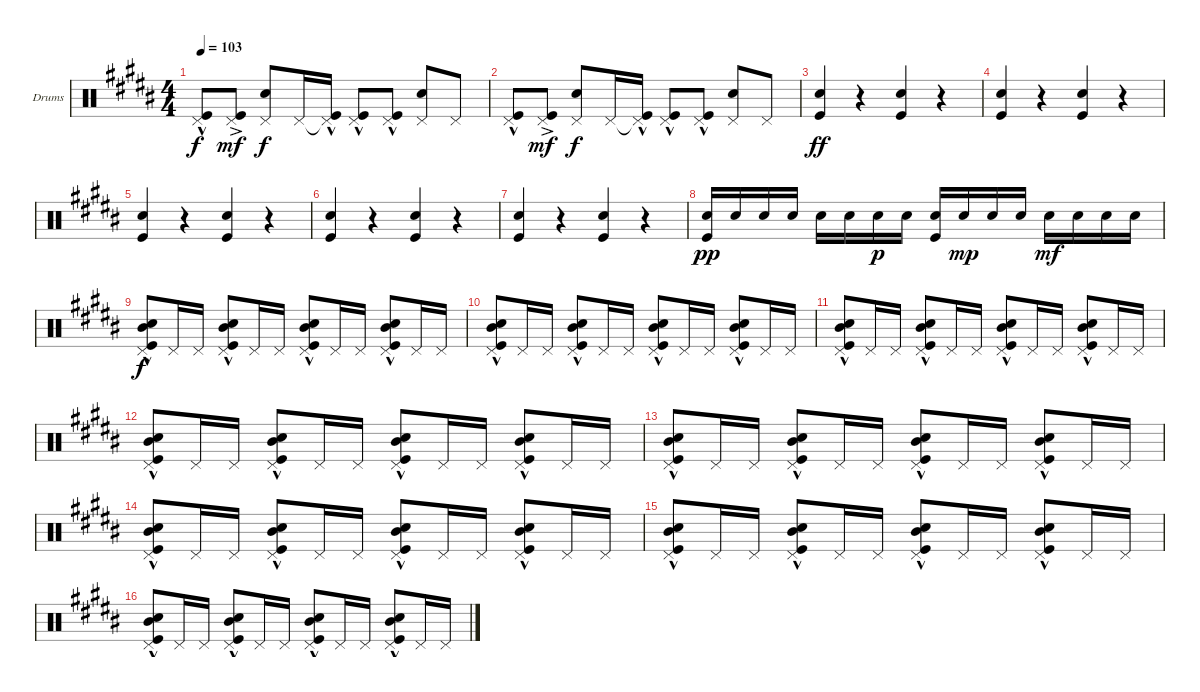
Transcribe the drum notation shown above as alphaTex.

\defaultSystemsLayout 4
\bracketExtendMode groupsimilarinstruments
\firstSystemTrackNameOrientation horizontal
\otherSystemsTrackNameOrientation horizontal
\track ("Drumkit" "Drums") {instrument percussion}
\staff {score}
\articulation defaults
\ts (4 4)
\tempo 103
\clef neutral
\ks b
("Pedal Hi-Hat (hit)" "Kick (hit)"{hac}).8{dy f} ("Kick (hit)"{ac} "Pedal Hi-Hat (hit)").8{dy mf} ("Pedal Hi-Hat (hit)" "Snare (hit) 2").8{dy f} "Pedal Hi-Hat (hit)".16 ("Pedal Hi-Hat (hit)"{t} "Kick (hit)"{hac}).16 ("Kick (hit)"{hac} "Pedal Hi-Hat (hit)").8 ("Pedal Hi-Hat (hit)" "Kick (hit)"{hac}).8 ("Pedal Hi-Hat (hit)" "Snare (hit) 2").8 "Pedal Hi-Hat (hit)".8 |
("Pedal Hi-Hat (hit)" "Kick (hit)"{hac}).8 ("Kick (hit)"{ac} "Pedal Hi-Hat (hit)").8{dy mf} ("Pedal Hi-Hat (hit)" "Snare (hit) 2").8{dy f} "Pedal Hi-Hat (hit)".16 ("Pedal Hi-Hat (hit)"{t} "Kick (hit)"{hac}).16 ("Kick (hit)"{hac} "Pedal Hi-Hat (hit)").8 ("Pedal Hi-Hat (hit)" "Kick (hit)"{hac}).8 ("Pedal Hi-Hat (hit)" "Snare (hit) 2").8 "Pedal Hi-Hat (hit)".8 |
("Snare (hit) 2" "Kick (hit)").4{dy ff} r.4 ("Kick (hit)" "Snare (hit) 2").4 r.4 |
("Snare (hit) 2" "Kick (hit)").4 r.4 ("Kick (hit)" "Snare (hit) 2").4 r.4 |
("Snare (hit) 2" "Kick (hit)").4 r.4 ("Kick (hit)" "Snare (hit) 2").4 r.4 |
("Snare (hit) 2" "Kick (hit)").4 r.4 ("Kick (hit)" "Snare (hit) 2").4 r.4 |
("Snare (hit) 2" "Kick (hit)").4 r.4 ("Kick (hit)" "Snare (hit) 2").4 r.4 |
("Snare (hit) 2" "Kick (hit)").16{dy pp} "Snare (hit) 2".16 "Snare (hit) 2".16 "Snare (hit) 2".16 "Snare (hit) 2".16 "Snare (hit) 2".16 "Snare (hit) 2".16{dy p} "Snare (hit) 2".16 ("Snare (hit) 2" "Kick (hit)").16 "Snare (hit) 2".16{dy mp} "Snare (hit) 2".16 "Snare (hit) 2".16 "Snare (hit) 2".16{dy mf} "Snare (hit) 2".16 "Snare (hit) 2".16 "Snare (hit) 2".16 |
("Snare (hit) 2" "Mid Tom (hit)"{hac} "Pedal Hi-Hat (hit)" "Kick (hit)"{hac}).8{dy f} "Pedal Hi-Hat (hit)".16 "Pedal Hi-Hat (hit)".16 ("Snare (hit) 2" "Mid Tom (hit)"{hac} "Pedal Hi-Hat (hit)" "Kick (hit)"{hac}).8 "Pedal Hi-Hat (hit)".16 "Pedal Hi-Hat (hit)".16 ("Snare (hit) 2" "Mid Tom (hit)"{hac} "Pedal Hi-Hat (hit)" "Kick (hit)"{hac}).8 "Pedal Hi-Hat (hit)".16 "Pedal Hi-Hat (hit)".16 ("Snare (hit) 2" "Mid Tom (hit)"{hac} "Pedal Hi-Hat (hit)" "Kick (hit)"{hac}).8 "Pedal Hi-Hat (hit)".16 "Pedal Hi-Hat (hit)".16 |
("Snare (hit) 2" "Mid Tom (hit)"{hac} "Pedal Hi-Hat (hit)" "Kick (hit)"{hac}).8 "Pedal Hi-Hat (hit)".16 "Pedal Hi-Hat (hit)".16 ("Snare (hit) 2" "Mid Tom (hit)"{hac} "Pedal Hi-Hat (hit)" "Kick (hit)"{hac}).8 "Pedal Hi-Hat (hit)".16 "Pedal Hi-Hat (hit)".16 ("Snare (hit) 2" "Mid Tom (hit)"{hac} "Pedal Hi-Hat (hit)" "Kick (hit)"{hac}).8 "Pedal Hi-Hat (hit)".16 "Pedal Hi-Hat (hit)".16 ("Snare (hit) 2" "Mid Tom (hit)"{hac} "Pedal Hi-Hat (hit)" "Kick (hit)"{hac}).8 "Pedal Hi-Hat (hit)".16 "Pedal Hi-Hat (hit)".16 |
("Snare (hit) 2" "Mid Tom (hit)"{hac} "Pedal Hi-Hat (hit)" "Kick (hit)"{hac}).8 "Pedal Hi-Hat (hit)".16 "Pedal Hi-Hat (hit)".16 ("Snare (hit) 2" "Mid Tom (hit)"{hac} "Pedal Hi-Hat (hit)" "Kick (hit)"{hac}).8 "Pedal Hi-Hat (hit)".16 "Pedal Hi-Hat (hit)".16 ("Snare (hit) 2" "Mid Tom (hit)"{hac} "Pedal Hi-Hat (hit)" "Kick (hit)"{hac}).8 "Pedal Hi-Hat (hit)".16 "Pedal Hi-Hat (hit)".16 ("Snare (hit) 2" "Mid Tom (hit)"{hac} "Pedal Hi-Hat (hit)" "Kick (hit)"{hac}).8 "Pedal Hi-Hat (hit)".16 "Pedal Hi-Hat (hit)".16 |
("Snare (hit) 2" "Mid Tom (hit)"{hac} "Pedal Hi-Hat (hit)" "Kick (hit)"{hac}).8 "Pedal Hi-Hat (hit)".16 "Pedal Hi-Hat (hit)".16 ("Snare (hit) 2" "Mid Tom (hit)"{hac} "Pedal Hi-Hat (hit)" "Kick (hit)"{hac}).8 "Pedal Hi-Hat (hit)".16 "Pedal Hi-Hat (hit)".16 ("Snare (hit) 2" "Mid Tom (hit)"{hac} "Pedal Hi-Hat (hit)" "Kick (hit)"{hac}).8 "Pedal Hi-Hat (hit)".16 "Pedal Hi-Hat (hit)".16 ("Snare (hit) 2" "Mid Tom (hit)"{hac} "Pedal Hi-Hat (hit)" "Kick (hit)"{hac}).8 "Pedal Hi-Hat (hit)".16 "Pedal Hi-Hat (hit)".16 |
("Snare (hit) 2" "Mid Tom (hit)"{hac} "Pedal Hi-Hat (hit)" "Kick (hit)"{hac}).8 "Pedal Hi-Hat (hit)".16 "Pedal Hi-Hat (hit)".16 ("Snare (hit) 2" "Mid Tom (hit)"{hac} "Pedal Hi-Hat (hit)" "Kick (hit)"{hac}).8 "Pedal Hi-Hat (hit)".16 "Pedal Hi-Hat (hit)".16 ("Snare (hit) 2" "Mid Tom (hit)"{hac} "Pedal Hi-Hat (hit)" "Kick (hit)"{hac}).8 "Pedal Hi-Hat (hit)".16 "Pedal Hi-Hat (hit)".16 ("Snare (hit) 2" "Mid Tom (hit)"{hac} "Pedal Hi-Hat (hit)" "Kick (hit)"{hac}).8 "Pedal Hi-Hat (hit)".16 "Pedal Hi-Hat (hit)".16 |
("Snare (hit) 2" "Mid Tom (hit)"{hac} "Pedal Hi-Hat (hit)" "Kick (hit)"{hac}).8 "Pedal Hi-Hat (hit)".16 "Pedal Hi-Hat (hit)".16 ("Snare (hit) 2" "Mid Tom (hit)"{hac} "Pedal Hi-Hat (hit)" "Kick (hit)"{hac}).8 "Pedal Hi-Hat (hit)".16 "Pedal Hi-Hat (hit)".16 ("Snare (hit) 2" "Mid Tom (hit)"{hac} "Pedal Hi-Hat (hit)" "Kick (hit)"{hac}).8 "Pedal Hi-Hat (hit)".16 "Pedal Hi-Hat (hit)".16 ("Snare (hit) 2" "Mid Tom (hit)"{hac} "Pedal Hi-Hat (hit)" "Kick (hit)"{hac}).8 "Pedal Hi-Hat (hit)".16 "Pedal Hi-Hat (hit)".16 |
("Snare (hit) 2" "Mid Tom (hit)"{hac} "Pedal Hi-Hat (hit)" "Kick (hit)"{hac}).8 "Pedal Hi-Hat (hit)".16 "Pedal Hi-Hat (hit)".16 ("Snare (hit) 2" "Mid Tom (hit)"{hac} "Pedal Hi-Hat (hit)" "Kick (hit)"{hac}).8 "Pedal Hi-Hat (hit)".16 "Pedal Hi-Hat (hit)".16 ("Snare (hit) 2" "Mid Tom (hit)"{hac} "Pedal Hi-Hat (hit)" "Kick (hit)"{hac}).8 "Pedal Hi-Hat (hit)".16 "Pedal Hi-Hat (hit)".16 ("Snare (hit) 2" "Mid Tom (hit)"{hac} "Pedal Hi-Hat (hit)" "Kick (hit)"{hac}).8 "Pedal Hi-Hat (hit)".16 "Pedal Hi-Hat (hit)".16 |
("Snare (hit) 2" "Mid Tom (hit)"{hac} "Pedal Hi-Hat (hit)" "Kick (hit)"{hac}).8 "Pedal Hi-Hat (hit)".16 "Pedal Hi-Hat (hit)".16 ("Snare (hit) 2" "Mid Tom (hit)"{hac} "Pedal Hi-Hat (hit)" "Kick (hit)"{hac}).8 "Pedal Hi-Hat (hit)".16 "Pedal Hi-Hat (hit)".16 ("Snare (hit) 2" "Mid Tom (hit)"{hac} "Pedal Hi-Hat (hit)" "Kick (hit)"{hac}).8 "Pedal Hi-Hat (hit)".16 "Pedal Hi-Hat (hit)".16 ("Snare (hit) 2" "Mid Tom (hit)"{hac} "Pedal Hi-Hat (hit)" "Kick (hit)"{hac}).8 "Pedal Hi-Hat (hit)".16 "Pedal Hi-Hat (hit)".16
